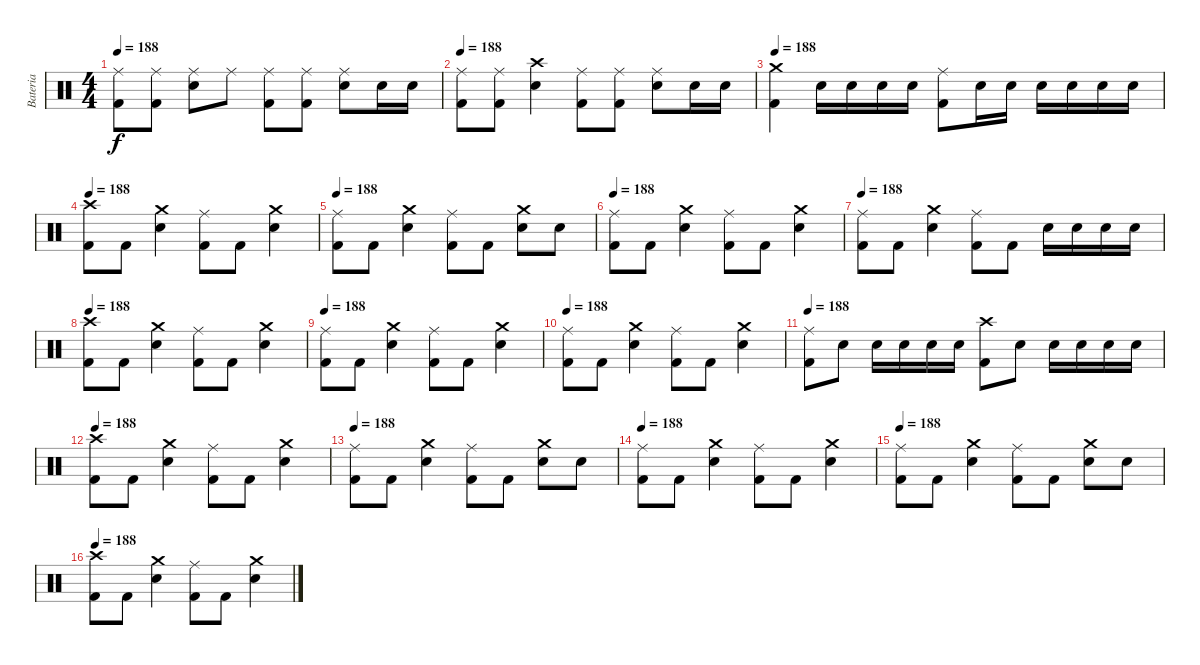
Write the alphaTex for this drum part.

\track ("Bateria" "Bateria") {instrument percussion}
\staff {score}
\articulation defaults
\ts (4 4)
\tempo 188
\clef neutral
\ks c
("Ride (middle)" "Kick (hit) 2").8{dy f} ("Ride (middle)" "Kick (hit) 2").8 ("Ride (middle)" "Electric Snare (hit)").8 "Ride (middle)".8 ("Ride (middle)" "Kick (hit) 2").8 ("Ride (middle)" "Kick (hit) 2").8 ("Ride (middle)" "Electric Snare (hit)").8 "Electric Snare (hit)".16 "Electric Snare (hit)".16 |
\tempo 188
("Ride (middle)" "Kick (hit) 2").8 ("Ride (middle)" "Kick (hit) 2").8 ("Crash high (hit)" "Electric Snare (hit)").4 ("Ride (middle)" "Kick (hit) 2").8 ("Ride (middle)" "Kick (hit) 2").8 ("Ride (middle)" "Electric Snare (hit)").8 "Electric Snare (hit)".16 "Electric Snare (hit)".16 |
\tempo 188
("Crash medium (hit)" "Kick (hit) 2").4 "Electric Snare (hit)".16 "Electric Snare (hit)".16 "Electric Snare (hit)".16 "Electric Snare (hit)".16 ("Ride (middle)" "Kick (hit) 2").8 "Electric Snare (hit)".16 "Electric Snare (hit)".16 "Electric Snare (hit)".16 "Electric Snare (hit)".16 "Electric Snare (hit)".16 "Electric Snare (hit)".16 |
\tempo 188
("Crash high (hit)" "Kick (hit) 2").8 "Kick (hit) 2".8 ("Crash medium (hit)" "Electric Snare (hit)").4 ("Ride (middle)" "Kick (hit) 2").8 "Kick (hit) 2".8 ("Crash medium (hit)" "Electric Snare (hit)").4 |
\tempo 188
("Ride (middle)" "Kick (hit) 2").8 "Kick (hit) 2".8 ("Crash medium (hit)" "Electric Snare (hit)").4 ("Ride (middle)" "Kick (hit) 2").8 "Kick (hit) 2".8 ("Crash medium (hit)" "Electric Snare (hit)").8 "Electric Snare (hit)".8 |
\tempo 188
("Ride (middle)" "Kick (hit) 2").8 "Kick (hit) 2".8 ("Crash medium (hit)" "Electric Snare (hit)").4 ("Ride (middle)" "Kick (hit) 2").8 "Kick (hit) 2".8 ("Crash medium (hit)" "Electric Snare (hit)").4 |
\tempo 188
("Ride (middle)" "Kick (hit) 2").8 "Kick (hit) 2".8 ("Crash medium (hit)" "Electric Snare (hit)").4 ("Ride (middle)" "Kick (hit) 2").8 "Kick (hit) 2".8 "Electric Snare (hit)".16 "Electric Snare (hit)".16 "Electric Snare (hit)".16 "Electric Snare (hit)".16 |
\tempo 188
("Crash high (hit)" "Kick (hit) 2").8 "Kick (hit) 2".8 ("Crash medium (hit)" "Electric Snare (hit)").4 ("Ride (middle)" "Kick (hit) 2").8 "Kick (hit) 2".8 ("Crash medium (hit)" "Electric Snare (hit)").4 |
\tempo 188
("Ride (middle)" "Kick (hit) 2").8 "Kick (hit) 2".8 ("Crash medium (hit)" "Electric Snare (hit)").4 ("Ride (middle)" "Kick (hit) 2").8 "Kick (hit) 2".8 ("Crash medium (hit)" "Electric Snare (hit)").4 |
\tempo 188
("Ride (middle)" "Kick (hit) 2").8 "Kick (hit) 2".8 ("Crash medium (hit)" "Electric Snare (hit)").4 ("Ride (middle)" "Kick (hit) 2").8 "Kick (hit) 2".8 ("Crash medium (hit)" "Electric Snare (hit)").4 |
\tempo 188
("Ride (middle)" "Kick (hit) 2").8 "Electric Snare (hit)".8 "Electric Snare (hit)".16 "Electric Snare (hit)".16 "Electric Snare (hit)".16 "Electric Snare (hit)".16 ("Crash high (hit)" "Kick (hit) 2").8 "Electric Snare (hit)".8 "Electric Snare (hit)".16 "Electric Snare (hit)".16 "Electric Snare (hit)".16 "Electric Snare (hit)".16 |
\tempo 188
("Crash high (hit)" "Kick (hit) 2").8 "Kick (hit) 2".8 ("Crash medium (hit)" "Electric Snare (hit)").4 ("Ride (middle)" "Kick (hit) 2").8 "Kick (hit) 2".8 ("Crash medium (hit)" "Electric Snare (hit)").4 |
\tempo 188
("Ride (middle)" "Kick (hit) 2").8 "Kick (hit) 2".8 ("Crash medium (hit)" "Electric Snare (hit)").4 ("Ride (middle)" "Kick (hit) 2").8 "Kick (hit) 2".8 ("Crash medium (hit)" "Electric Snare (hit)").8 "Electric Snare (hit)".8 |
\tempo 188
("Ride (middle)" "Kick (hit) 2").8 "Kick (hit) 2".8 ("Crash medium (hit)" "Electric Snare (hit)").4 ("Ride (middle)" "Kick (hit) 2").8 "Kick (hit) 2".8 ("Crash medium (hit)" "Electric Snare (hit)").4 |
\tempo 188
("Ride (middle)" "Kick (hit) 2").8 "Kick (hit) 2".8 ("Crash medium (hit)" "Electric Snare (hit)").4 ("Ride (middle)" "Kick (hit) 2").8 "Kick (hit) 2".8 ("Crash medium (hit)" "Electric Snare (hit)").8 "Electric Snare (hit)".8 |
\tempo 188
("Crash high (hit)" "Kick (hit) 2").8 "Kick (hit) 2".8 ("Crash medium (hit)" "Electric Snare (hit)").4 ("Ride (middle)" "Kick (hit) 2").8 "Kick (hit) 2".8 ("Crash medium (hit)" "Electric Snare (hit)").4
